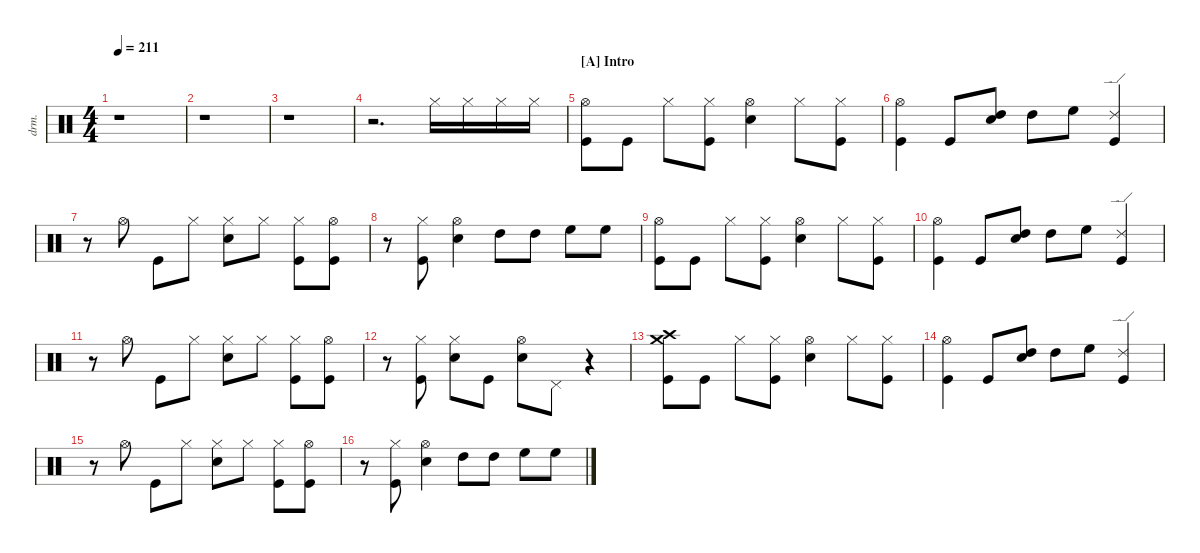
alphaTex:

\defaultSystemsLayout 4
\hideDynamics
\bracketExtendMode nobrackets
\track ("Drums" "drm.") {instrument percussion}
\staff {score}
\articulation defaults
\ts (4 4)
\tempo 211
\clef neutral
\ks c
r.1{dy f} |
r.1 |
r.1 |
r.2{d} "Hi-Hat (closed)"{acc #}.16 "Hi-Hat (closed)"{acc #}.16{dy mf} "Hi-Hat (closed)"{acc #}.16{dy f} "Hi-Hat (closed)"{acc #}.16{dy mf} |
\section ("A" "Intro")
("Kick (hit)" "Hi-Hat (open)"{acc #}).8{dy f} "Kick (hit)".8{dy fff} "Hi-Hat (closed)"{acc #}.8{dy ff} ("Kick (hit)" "Hi-Hat (closed)"{acc #}).8 ("Snare (hit) 2" "Hi-Hat (open)"{acc #}).4 "Hi-Hat (closed)"{acc #}.8 ("Kick (hit)" "Hi-Hat (closed)"{acc #}).8{dy f} |
("Kick (hit)" "Hi-Hat (open)"{acc #}).4{dy fff} "Kick (hit)".8{dy ff} ("Snare (hit) 2" "High Tom (hit)").8 "High Tom (hit)".8{dy mp} "High Floor Tom (hit)".8{dy ff} ("Kick (hit)" "Ride (edge) 2").4 |
r.8 "Hi-Hat (open)"{acc #}.8 "Kick (hit)".8 "Hi-Hat (closed)"{acc #}.8{dy mp} ("Snare (hit) 2" "Hi-Hat (closed)"{acc #}).8{dy ff} "Hi-Hat (closed)"{acc #}.8{dy mp} ("Kick (hit)" "Hi-Hat (closed)"{acc #}).8{dy ff} ("Kick (hit)" "Hi-Hat (open)"{acc #}).8 |
r.8 ("Kick (hit)" "Hi-Hat (closed)"{acc #}).8 ("Snare (hit) 2" "Hi-Hat (open)"{acc #}).4 "High Tom (hit)".8 "High Tom (hit)".8{dy f} "High Floor Tom (hit)".8{dy ff} "High Floor Tom (hit)".8{dy f} |
("Kick (hit)" "Hi-Hat (open)"{acc #}).8 "Kick (hit)".8{dy fff} "Hi-Hat (closed)"{acc #}.8{dy ff} ("Kick (hit)" "Hi-Hat (closed)"{acc #}).8 ("Snare (hit) 2" "Hi-Hat (open)"{acc #}).4 "Hi-Hat (closed)"{acc #}.8 ("Kick (hit)" "Hi-Hat (closed)"{acc #}).8{dy f} |
("Kick (hit)" "Hi-Hat (open)"{acc #}).4{dy fff} "Kick (hit)".8{dy ff} ("Snare (hit) 2" "High Tom (hit)").8 "High Tom (hit)".8{dy mp} "High Floor Tom (hit)".8{dy ff} ("Kick (hit)" "Ride (edge) 2").4 |
r.8 "Hi-Hat (open)"{acc #}.8 "Kick (hit)".8 "Hi-Hat (closed)"{acc #}.8{dy p} ("Snare (hit) 2" "Hi-Hat (closed)"{acc #}).8{dy ff} "Hi-Hat (closed)"{acc #}.8{dy mp} ("Kick (hit)" "Hi-Hat (closed)"{acc #}).8{dy ff} ("Kick (hit)" "Hi-Hat (open)"{acc #}).8 |
r.8 ("Kick (hit)" "Hi-Hat (closed)"{acc #}).8 ("Snare (hit) 2" "Hi-Hat (closed)"{acc #}).8{dy mp} "Kick (hit)".8{dy mf} ("Snare (hit) 2" "Hi-Hat (open)"{acc #}).8{dy ff} "Pedal Hi-Hat (hit)"{acc #}.8 r.4 |
("Kick (hit)" "Crash high (hit)"{acc #} "Crash medium (hit)").8{dy f} "Kick (hit)".8{dy fff} "Hi-Hat (closed)"{acc #}.8{dy ff} ("Kick (hit)" "Hi-Hat (closed)"{acc #}).8 ("Snare (hit) 2" "Hi-Hat (open)"{acc #}).4 "Hi-Hat (closed)"{acc #}.8 ("Kick (hit)" "Hi-Hat (closed)"{acc #}).8{dy f} |
("Kick (hit)" "Hi-Hat (open)"{acc #}).4{dy fff} "Kick (hit)".8{dy ff} ("Snare (hit) 2" "High Tom (hit)").8 "High Tom (hit)".8{dy mp} "High Floor Tom (hit)".8{dy ff} ("Kick (hit)" "Ride (edge) 2").4 |
r.8 "Hi-Hat (open)"{acc #}.8 "Kick (hit)".8 "Hi-Hat (closed)"{acc #}.8{dy mp} ("Snare (hit) 2" "Hi-Hat (closed)"{acc #}).8{dy ff} "Hi-Hat (closed)"{acc #}.8{dy mp} ("Kick (hit)" "Hi-Hat (closed)"{acc #}).8{dy f} ("Kick (hit)" "Hi-Hat (open)"{acc #}).8{dy fff} |
r.8 ("Kick (hit)" "Hi-Hat (closed)"{acc #}).8{dy ff} ("Snare (hit) 2" "Hi-Hat (open)"{acc #}).4 "High Tom (hit)".8 "High Tom (hit)".8{dy f} "High Floor Tom (hit)".8{dy ff} "High Floor Tom (hit)".8{dy f}
